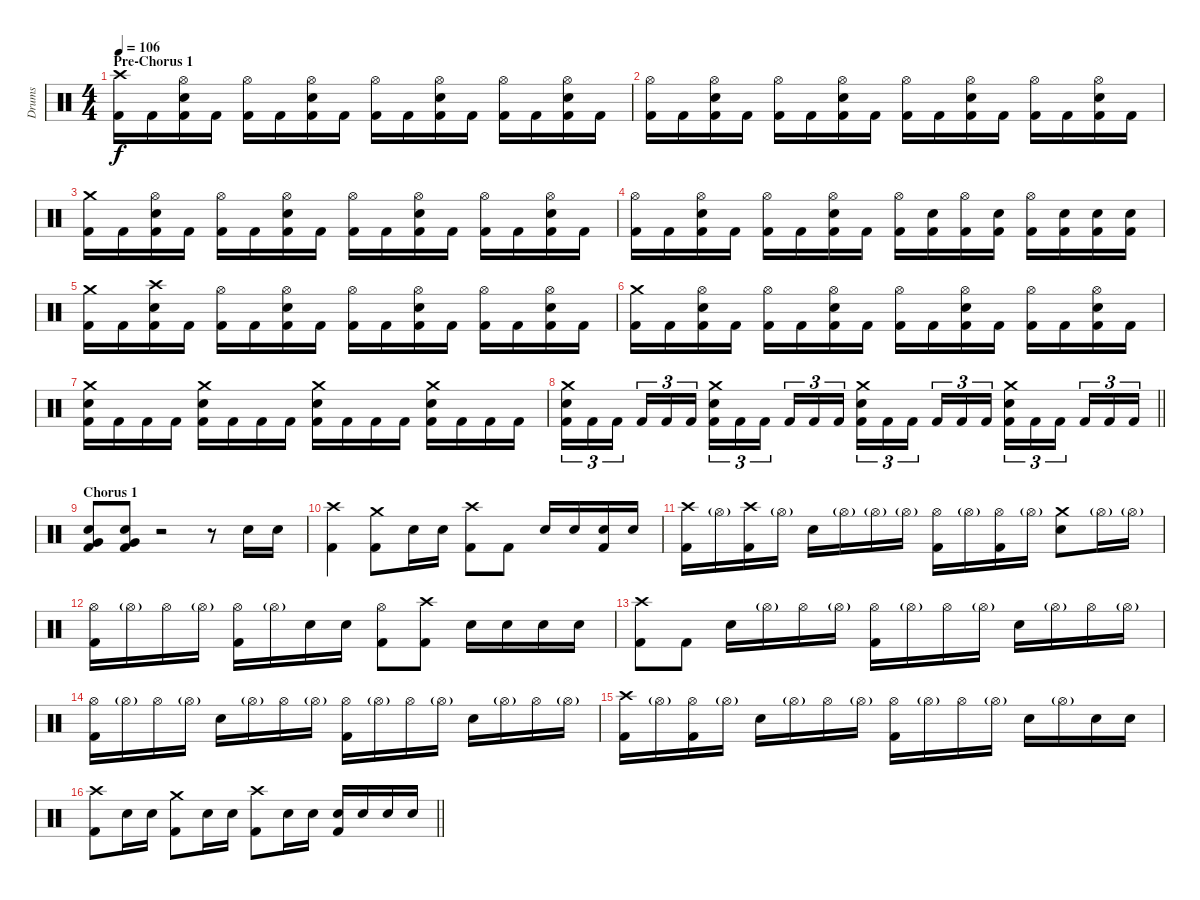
\track ("Drums" "Drums") {instrument percussion}
\staff {score}
\articulation defaults
\ts (4 4)
\section ("" "Pre-Chorus 1")
\tempo 106
\clef neutral
\ks c
("Crash high (hit)" "Kick (hit) 2").16{dy f} "Kick (hit) 2".16 ("Hi-Hat (open)" "Electric Snare (hit)" "Kick (hit) 2").16 "Kick (hit) 2".16 ("Hi-Hat (open)" "Kick (hit) 2").16 "Kick (hit) 2".16 ("Hi-Hat (open)" "Electric Snare (hit)" "Kick (hit) 2").16 "Kick (hit) 2".16 ("Hi-Hat (open)" "Kick (hit) 2").16 "Kick (hit) 2".16 ("Hi-Hat (open)" "Electric Snare (hit)" "Kick (hit) 2").16 "Kick (hit) 2".16 ("Hi-Hat (open)" "Kick (hit) 2").16 "Kick (hit) 2".16 ("Hi-Hat (open)" "Electric Snare (hit)" "Kick (hit) 2").16 "Kick (hit) 2".16 |
("Hi-Hat (open)" "Kick (hit) 2").16 "Kick (hit) 2".16 ("Hi-Hat (open)" "Electric Snare (hit)" "Kick (hit) 2").16 "Kick (hit) 2".16 ("Hi-Hat (open)" "Kick (hit) 2").16 "Kick (hit) 2".16 ("Hi-Hat (open)" "Electric Snare (hit)" "Kick (hit) 2").16 "Kick (hit) 2".16 ("Hi-Hat (open)" "Kick (hit) 2").16 "Kick (hit) 2".16 ("Hi-Hat (open)" "Electric Snare (hit)" "Kick (hit) 2").16 "Kick (hit) 2".16 ("Hi-Hat (open)" "Kick (hit) 2").16 "Kick (hit) 2".16 ("Hi-Hat (open)" "Electric Snare (hit)" "Kick (hit) 2").16 "Kick (hit) 2".16 |
("Crash medium (hit)" "Kick (hit) 2").16 "Kick (hit) 2".16 ("Hi-Hat (open)" "Electric Snare (hit)" "Kick (hit) 2").16 "Kick (hit) 2".16 ("Hi-Hat (open)" "Kick (hit) 2").16 "Kick (hit) 2".16 ("Hi-Hat (open)" "Electric Snare (hit)" "Kick (hit) 2").16 "Kick (hit) 2".16 ("Hi-Hat (open)" "Kick (hit) 2").16 "Kick (hit) 2".16 ("Hi-Hat (open)" "Electric Snare (hit)" "Kick (hit) 2").16 "Kick (hit) 2".16 ("Hi-Hat (open)" "Kick (hit) 2").16 "Kick (hit) 2".16 ("Hi-Hat (open)" "Electric Snare (hit)" "Kick (hit) 2").16 "Kick (hit) 2".16 |
("Hi-Hat (open)" "Kick (hit) 2").16 "Kick (hit) 2".16 ("Hi-Hat (open)" "Electric Snare (hit)" "Kick (hit) 2").16 "Kick (hit) 2".16 ("Hi-Hat (open)" "Kick (hit) 2").16 "Kick (hit) 2".16 ("Hi-Hat (open)" "Electric Snare (hit)" "Kick (hit) 2").16 "Kick (hit) 2".16 ("Hi-Hat (open)" "Kick (hit) 2").16 ("Electric Snare (hit)" "Kick (hit) 2").16 ("Hi-Hat (open)" "Kick (hit) 2").16 ("Electric Snare (hit)" "Kick (hit) 2").16 ("Hi-Hat (open)" "Kick (hit) 2").16 ("Electric Snare (hit)" "Kick (hit) 2").16 ("Electric Snare (hit)" "Kick (hit) 2").16 ("Electric Snare (hit)" "Kick (hit) 2").16 |
("Crash medium (hit)" "Kick (hit) 2").16 "Kick (hit) 2".16 ("Crash high (hit)" "Electric Snare (hit)" "Kick (hit) 2").16 "Kick (hit) 2".16 ("Hi-Hat (open)" "Kick (hit) 2").16 "Kick (hit) 2".16 ("Hi-Hat (open)" "Electric Snare (hit)" "Kick (hit) 2").16 "Kick (hit) 2".16 ("Hi-Hat (open)" "Kick (hit) 2").16 "Kick (hit) 2".16 ("Hi-Hat (open)" "Electric Snare (hit)" "Kick (hit) 2").16 "Kick (hit) 2".16 ("Hi-Hat (open)" "Kick (hit) 2").16 "Kick (hit) 2".16 ("Hi-Hat (open)" "Electric Snare (hit)" "Kick (hit) 2").16 "Kick (hit) 2".16 |
("Crash medium (hit)" "Kick (hit) 2").16 "Kick (hit) 2".16 ("Hi-Hat (open)" "Electric Snare (hit)" "Kick (hit) 2").16 "Kick (hit) 2".16 ("Hi-Hat (open)" "Kick (hit) 2").16 "Kick (hit) 2".16 ("Hi-Hat (open)" "Electric Snare (hit)" "Kick (hit) 2").16 "Kick (hit) 2".16 ("Hi-Hat (open)" "Kick (hit) 2").16 "Kick (hit) 2".16 ("Hi-Hat (open)" "Electric Snare (hit)" "Kick (hit) 2").16 "Kick (hit) 2".16 ("Hi-Hat (open)" "Kick (hit) 2").16 "Kick (hit) 2".16 ("Hi-Hat (open)" "Electric Snare (hit)" "Kick (hit) 2").16 "Kick (hit) 2".16 |
("Crash medium (hit)" "Electric Snare (hit)" "Kick (hit) 2").16 "Kick (hit) 2".16 "Kick (hit) 2".16 "Kick (hit) 2".16 ("Crash medium (hit)" "Electric Snare (hit)" "Kick (hit) 2").16 "Kick (hit) 2".16 "Kick (hit) 2".16 "Kick (hit) 2".16 ("Crash medium (hit)" "Electric Snare (hit)" "Kick (hit) 2").16 "Kick (hit) 2".16 "Kick (hit) 2".16 "Kick (hit) 2".16 ("Crash medium (hit)" "Electric Snare (hit)" "Kick (hit) 2").16 "Kick (hit) 2".16 "Kick (hit) 2".16 "Kick (hit) 2".16 |
\barLineRight lightlight
("Crash medium (hit)" "Electric Snare (hit)" "Kick (hit) 2").16{tu (3 2)} "Kick (hit) 2".16{tu (3 2)} "Kick (hit) 2".16{tu (3 2) beam splitsecondary} "Kick (hit) 2".16{tu (3 2)} "Kick (hit) 2".16{tu (3 2)} "Kick (hit) 2".16{tu (3 2)} ("Crash medium (hit)" "Electric Snare (hit)" "Kick (hit) 2").16{tu (3 2)} "Kick (hit) 2".16{tu (3 2)} "Kick (hit) 2".16{tu (3 2) beam splitsecondary} "Kick (hit) 2".16{tu (3 2)} "Kick (hit) 2".16{tu (3 2)} "Kick (hit) 2".16{tu (3 2)} ("Crash medium (hit)" "Electric Snare (hit)" "Kick (hit) 2").16{tu (3 2)} "Kick (hit) 2".16{tu (3 2)} "Kick (hit) 2".16{tu (3 2) beam splitsecondary} "Kick (hit) 2".16{tu (3 2)} "Kick (hit) 2".16{tu (3 2)} "Kick (hit) 2".16{tu (3 2)} ("Crash medium (hit)" "Electric Snare (hit)" "Kick (hit) 2").16{tu (3 2)} "Kick (hit) 2".16{tu (3 2)} "Kick (hit) 2".16{tu (3 2) beam splitsecondary} "Kick (hit) 2".16{tu (3 2)} "Kick (hit) 2".16{tu (3 2)} "Kick (hit) 2".16{tu (3 2)} |
\section ("" "Chorus 1")
("Very Low Tom (hit)" "Electric Snare (hit)" "Kick (hit) 2").8 ("Very Low Tom (hit)" "Electric Snare (hit)" "Kick (hit) 2").8 r.2 r.8 "Electric Snare (hit)".16 "Electric Snare (hit)".16 |
("Crash high (hit)" "Kick (hit) 2").4 ("Crash medium (hit)" "Kick (hit) 2").8 "Electric Snare (hit)".16 "Electric Snare (hit)".16 ("Crash high (hit)" "Kick (hit) 2").8 "Kick (hit) 2".8 "Electric Snare (hit)".16 "Electric Snare (hit)".16 ("Electric Snare (hit)" "Kick (hit) 2").16 "Electric Snare (hit)".16 |
("Crash high (hit)" "Kick (hit) 2").16 "Hi-Hat (open)"{g}.16 ("Crash high (hit)" "Kick (hit) 2").16 "Hi-Hat (open)"{g}.16 "Electric Snare (hit)".16 "Hi-Hat (open)"{g}.16 "Hi-Hat (open)"{g}.16 "Hi-Hat (open)"{g}.16 ("Hi-Hat (open)" "Kick (hit) 2").16 "Hi-Hat (open)"{g}.16 ("Hi-Hat (open)" "Kick (hit) 2").16 "Hi-Hat (open)"{g}.16 ("Crash medium (hit)" "Electric Snare (hit)").8 "Hi-Hat (open)"{g}.16 "Hi-Hat (open)"{g}.16 |
("Hi-Hat (open)" "Kick (hit) 2").16 "Hi-Hat (open)"{g}.16 "Hi-Hat (open)".16 "Hi-Hat (open)"{g}.16 ("Hi-Hat (open)" "Kick (hit) 2").16 "Hi-Hat (open)"{g}.16 "Electric Snare (hit)".16 "Electric Snare (hit)".16 ("Hi-Hat (open)" "Kick (hit) 2").8 ("Crash high (hit)" "Kick (hit) 2").8 "Electric Snare (hit)".16 "Electric Snare (hit)".16 "Electric Snare (hit)".16 "Electric Snare (hit)".16 |
("Crash high (hit)" "Kick (hit) 2").8 "Kick (hit) 2".8 "Electric Snare (hit)".16 "Hi-Hat (open)"{g}.16 "Hi-Hat (open)".16 "Hi-Hat (open)"{g}.16 ("Hi-Hat (open)" "Kick (hit) 2").16 "Hi-Hat (open)"{g}.16 "Hi-Hat (open)".16 "Hi-Hat (open)"{g}.16 "Electric Snare (hit)".16 "Hi-Hat (open)"{g}.16 "Hi-Hat (open)".16 "Hi-Hat (open)"{g}.16 |
("Hi-Hat (open)" "Kick (hit) 2").16 "Hi-Hat (open)"{g}.16 "Hi-Hat (open)".16 "Hi-Hat (open)"{g}.16 "Electric Snare (hit)".16 "Hi-Hat (open)"{g}.16 "Hi-Hat (open)".16 "Hi-Hat (open)"{g}.16 ("Hi-Hat (open)" "Kick (hit) 2").16 "Hi-Hat (open)"{g}.16 "Hi-Hat (open)".16 "Hi-Hat (open)"{g}.16 "Electric Snare (hit)".16 "Hi-Hat (open)"{g}.16 "Hi-Hat (open)".16 "Hi-Hat (open)"{g}.16 |
("Crash high (hit)" "Kick (hit) 2").16 "Hi-Hat (open)"{g}.16 ("Hi-Hat (open)" "Kick (hit) 2").16 "Hi-Hat (open)"{g}.16 "Electric Snare (hit)".16 "Hi-Hat (open)"{g}.16 "Hi-Hat (open)".16 "Hi-Hat (open)"{g}.16 ("Hi-Hat (open)" "Kick (hit) 2").16 "Hi-Hat (open)"{g}.16 "Hi-Hat (open)".16 "Hi-Hat (open)"{g}.16 "Electric Snare (hit)".16 "Hi-Hat (open)"{g}.16 "Electric Snare (hit)".16 "Electric Snare (hit)".16 |
\barLineRight lightlight
("Crash high (hit)" "Kick (hit) 2").8 "Electric Snare (hit)".16 "Electric Snare (hit)".16 ("Crash medium (hit)" "Kick (hit) 2").8 "Electric Snare (hit)".16 "Electric Snare (hit)".16 ("Crash high (hit)" "Kick (hit) 2").8 "Electric Snare (hit)".16 "Electric Snare (hit)".16 ("Electric Snare (hit)" "Kick (hit) 2").16 "Electric Snare (hit)".16 "Electric Snare (hit)".16 "Electric Snare (hit)".16
